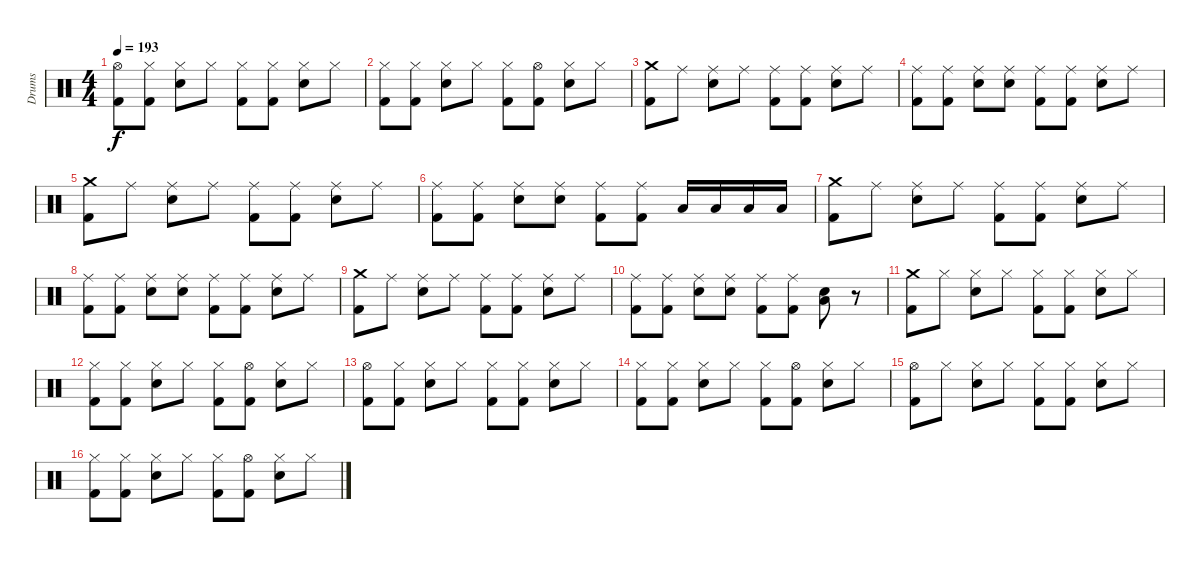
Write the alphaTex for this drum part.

\track ("Drums" "Drums") {instrument percussion}
\staff {score}
\articulation defaults
\ts (4 4)
\tempo 193
\clef neutral
\ks c
("Hi-Hat (open)" "Kick (hit) 2").8{dy f} ("Hi-Hat (closed)" "Kick (hit) 2").8 ("Hi-Hat (closed)" "Snare (hit) 2").8 "Hi-Hat (closed)".8 ("Hi-Hat (closed)" "Kick (hit) 2").8 ("Hi-Hat (closed)" "Kick (hit) 2").8 ("Hi-Hat (closed)" "Snare (hit) 2").8 "Hi-Hat (closed)".8 |
("Hi-Hat (closed)" "Kick (hit) 2").8 ("Hi-Hat (closed)" "Kick (hit) 2").8 ("Hi-Hat (closed)" "Snare (hit) 2").8 "Hi-Hat (closed)".8 ("Hi-Hat (closed)" "Kick (hit) 2").8 ("Hi-Hat (open)" "Kick (hit) 2").8 ("Hi-Hat (closed)" "Snare (hit) 2").8 "Hi-Hat (closed)".8 |
("Crash medium (hit)" "Kick (hit) 2").8 "Ride (middle)".8 ("Ride (middle)" "Snare (hit) 2").8 "Ride (middle)".8 ("Ride (middle)" "Kick (hit) 2").8 ("Ride (middle)" "Kick (hit) 2").8 ("Ride (middle)" "Snare (hit) 2").8 "Ride (middle)".8 |
("Ride (middle)" "Kick (hit) 2").8 ("Ride (middle)" "Kick (hit) 2").8 ("Ride (middle)" "Snare (hit) 2").8 ("Ride (middle)" "Snare (hit) 2").8 ("Ride (middle)" "Kick (hit) 2").8 ("Ride (middle)" "Kick (hit) 2").8 ("Ride (middle)" "Snare (hit) 2").8 "Ride (middle)".8 |
("Crash medium (hit)" "Kick (hit) 2").8 "Ride (middle)".8 ("Ride (middle)" "Snare (hit) 2").8 "Ride (middle)".8 ("Ride (middle)" "Kick (hit) 2").8 ("Ride (middle)" "Kick (hit) 2").8 ("Ride (middle)" "Snare (hit) 2").8 "Ride (middle)".8 |
("Ride (middle)" "Kick (hit) 2").8 ("Ride (middle)" "Kick (hit) 2").8 ("Ride (middle)" "Snare (hit) 2").8 ("Ride (middle)" "Snare (hit) 2").8 ("Ride (middle)" "Kick (hit) 2").8 ("Ride (middle)" "Kick (hit) 2").8 "Low Floor Tom (hit)".16 "Low Floor Tom (hit)".16 "Low Floor Tom (hit)".16 "Low Floor Tom (hit)".16 |
("Crash medium (hit)" "Kick (hit) 2").8 "Ride (middle)".8 ("Ride (middle)" "Snare (hit) 2").8 "Ride (middle)".8 ("Ride (middle)" "Kick (hit) 2").8 ("Ride (middle)" "Kick (hit) 2").8 ("Ride (middle)" "Snare (hit) 2").8 "Ride (middle)".8 |
("Ride (middle)" "Kick (hit) 2").8 ("Ride (middle)" "Kick (hit) 2").8 ("Ride (middle)" "Snare (hit) 2").8 ("Ride (middle)" "Snare (hit) 2").8 ("Ride (middle)" "Kick (hit) 2").8 ("Ride (middle)" "Kick (hit) 2").8 ("Ride (middle)" "Snare (hit) 2").8 "Ride (middle)".8 |
("Crash medium (hit)" "Kick (hit) 2").8 "Ride (middle)".8 ("Ride (middle)" "Snare (hit) 2").8 "Ride (middle)".8 ("Ride (middle)" "Kick (hit) 2").8 ("Ride (middle)" "Kick (hit) 2").8 ("Ride (middle)" "Snare (hit) 2").8 "Ride (middle)".8 |
("Ride (middle)" "Kick (hit) 2").8 ("Ride (middle)" "Kick (hit) 2").8 ("Ride (middle)" "Snare (hit) 2").8 ("Ride (middle)" "Snare (hit) 2").8 ("Ride (middle)" "Kick (hit) 2").8 ("Ride (middle)" "Kick (hit) 2").8 ("Snare (hit) 2" "Low Floor Tom (hit)").8 r.8 |
("Crash medium (hit)" "Kick (hit) 2").8 "Hi-Hat (closed)".8 ("Hi-Hat (closed)" "Snare (hit) 2").8 "Hi-Hat (closed)".8 ("Hi-Hat (closed)" "Kick (hit) 2").8 ("Hi-Hat (closed)" "Kick (hit) 2").8 ("Hi-Hat (closed)" "Snare (hit) 2").8 "Hi-Hat (closed)".8 |
("Hi-Hat (closed)" "Kick (hit) 2").8 ("Hi-Hat (closed)" "Kick (hit) 2").8 ("Hi-Hat (closed)" "Snare (hit) 2").8 "Hi-Hat (closed)".8 ("Hi-Hat (closed)" "Kick (hit) 2").8 ("Hi-Hat (open)" "Kick (hit) 2").8 ("Hi-Hat (closed)" "Snare (hit) 2").8 "Hi-Hat (closed)".8 |
("Hi-Hat (open)" "Kick (hit) 2").8 ("Hi-Hat (closed)" "Kick (hit) 2").8 ("Hi-Hat (closed)" "Snare (hit) 2").8 "Hi-Hat (closed)".8 ("Hi-Hat (closed)" "Kick (hit) 2").8 ("Hi-Hat (closed)" "Kick (hit) 2").8 ("Hi-Hat (closed)" "Snare (hit) 2").8 "Hi-Hat (closed)".8 |
("Hi-Hat (closed)" "Kick (hit) 2").8 ("Hi-Hat (closed)" "Kick (hit) 2").8 ("Hi-Hat (closed)" "Snare (hit) 2").8 "Hi-Hat (closed)".8 ("Hi-Hat (closed)" "Kick (hit) 2").8 ("Hi-Hat (open)" "Kick (hit) 2").8 ("Hi-Hat (closed)" "Snare (hit) 2").8 "Hi-Hat (closed)".8 |
("Hi-Hat (open)" "Kick (hit) 2").8 "Hi-Hat (closed)".8 ("Hi-Hat (closed)" "Snare (hit) 2").8 "Hi-Hat (closed)".8 ("Hi-Hat (closed)" "Kick (hit) 2").8 ("Hi-Hat (closed)" "Kick (hit) 2").8 ("Hi-Hat (closed)" "Snare (hit) 2").8 "Hi-Hat (closed)".8 |
("Hi-Hat (closed)" "Kick (hit) 2").8 ("Hi-Hat (closed)" "Kick (hit) 2").8 ("Hi-Hat (closed)" "Snare (hit) 2").8 "Hi-Hat (closed)".8 ("Hi-Hat (closed)" "Kick (hit) 2").8 ("Hi-Hat (open)" "Kick (hit) 2").8 ("Hi-Hat (closed)" "Snare (hit) 2").8 "Hi-Hat (closed)".8
